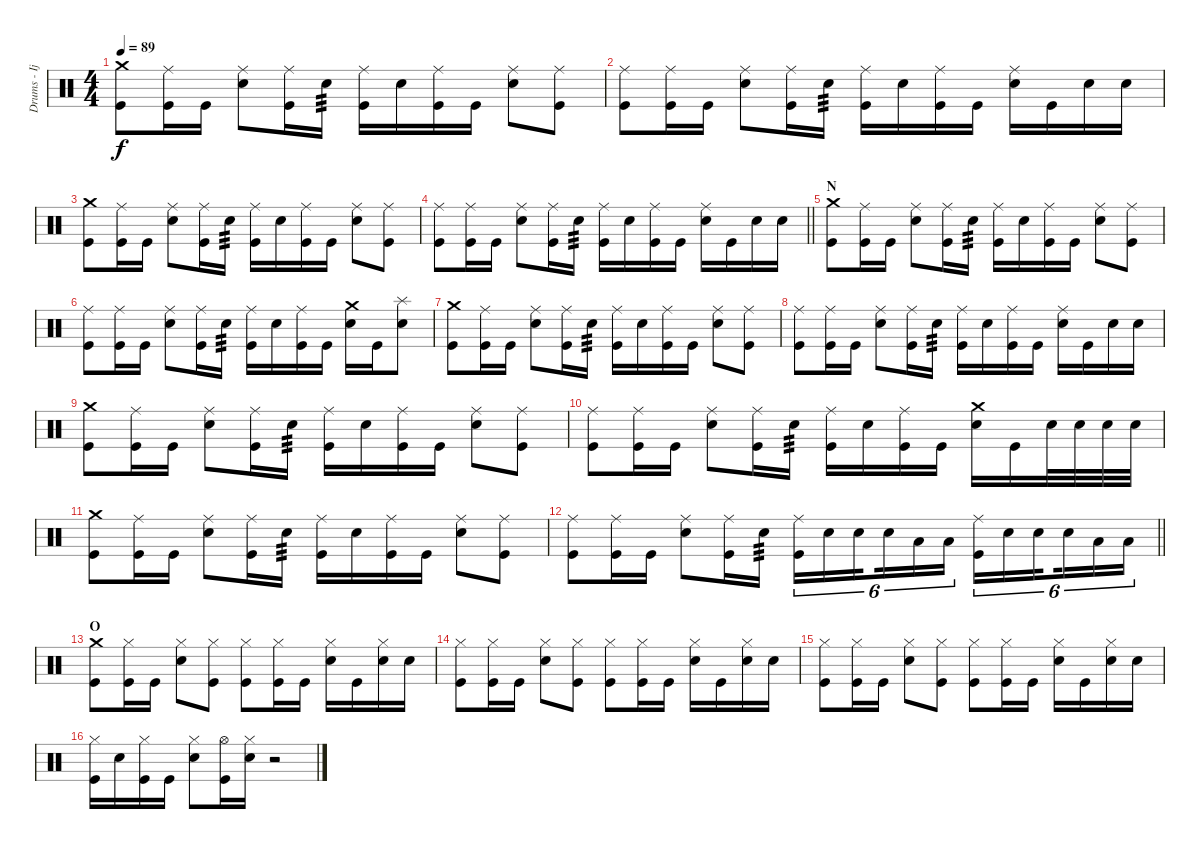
\track ("Drums - Ijichi" "Drums - Ij") {instrument percussion}
\staff {score}
\articulation defaults
\ts (4 4)
\tempo 89
\clef neutral
\ks c
("Crash medium (hit)" "Kick (hit)").8{dy f} ("Ride (middle)" "Kick (hit)").16 "Kick (hit)".16 ("Ride (middle)" "Electric Snare (hit)").8 ("Ride (middle)" "Kick (hit)").16 "Electric Snare (hit)".16{tp 3} ("Ride (middle)" "Kick (hit)").16 "Electric Snare (hit)".16 ("Ride (middle)" "Kick (hit)").16 "Kick (hit)".16 ("Ride (middle)" "Electric Snare (hit)").8 ("Ride (middle)" "Kick (hit)").8 |
("Ride (middle)" "Kick (hit)").8 ("Ride (middle)" "Kick (hit)").16 "Kick (hit)".16 ("Ride (middle)" "Electric Snare (hit)").8 ("Ride (middle)" "Kick (hit)").16 "Electric Snare (hit)".16{tp 3} ("Ride (middle)" "Kick (hit)").16 "Electric Snare (hit)".16 ("Ride (middle)" "Kick (hit)").16 "Kick (hit)".16 ("Ride (middle)" "Electric Snare (hit)").16 "Kick (hit)".16 "Electric Snare (hit)".16 "Electric Snare (hit)".16 |
("Crash medium (hit)" "Kick (hit)").8 ("Ride (middle)" "Kick (hit)").16 "Kick (hit)".16 ("Ride (middle)" "Electric Snare (hit)").8 ("Ride (middle)" "Kick (hit)").16 "Electric Snare (hit)".16{tp 3} ("Ride (middle)" "Kick (hit)").16 "Electric Snare (hit)".16 ("Ride (middle)" "Kick (hit)").16 "Kick (hit)".16 ("Ride (middle)" "Electric Snare (hit)").8 ("Ride (middle)" "Kick (hit)").8 |
\barLineRight lightlight
("Ride (middle)" "Kick (hit)").8 ("Ride (middle)" "Kick (hit)").16 "Kick (hit)".16 ("Ride (middle)" "Electric Snare (hit)").8 ("Ride (middle)" "Kick (hit)").16 "Electric Snare (hit)".16{tp 3} ("Ride (middle)" "Kick (hit)").16 "Electric Snare (hit)".16 ("Ride (middle)" "Kick (hit)").16 "Kick (hit)".16 ("Ride (middle)" "Electric Snare (hit)").16 "Kick (hit)".16 "Electric Snare (hit)".16 "Electric Snare (hit)".16 |
\section ("" "N")
("Crash medium (hit)" "Kick (hit)").8 ("Ride (middle)" "Kick (hit)").16 "Kick (hit)".16 ("Ride (middle)" "Electric Snare (hit)").8 ("Ride (middle)" "Kick (hit)").16 "Electric Snare (hit)".16{tp 3} ("Ride (middle)" "Kick (hit)").16 "Electric Snare (hit)".16 ("Ride (middle)" "Kick (hit)").16 "Kick (hit)".16 ("Ride (middle)" "Electric Snare (hit)").8 ("Ride (middle)" "Kick (hit)").8 |
("Ride (middle)" "Kick (hit)").8 ("Ride (middle)" "Kick (hit)").16 "Kick (hit)".16 ("Ride (middle)" "Electric Snare (hit)").8 ("Ride (middle)" "Kick (hit)").16 "Electric Snare (hit)".16{tp 3} ("Ride (middle)" "Kick (hit)").16 "Electric Snare (hit)".16 ("Ride (middle)" "Kick (hit)").16 "Kick (hit)".16 ("Crash medium (hit)" "Electric Snare (hit)").16 "Kick (hit)".16 ("Splash (hit)" "Electric Snare (hit)").8 |
("Crash medium (hit)" "Kick (hit)").8 ("Ride (middle)" "Kick (hit)").16 "Kick (hit)".16 ("Ride (middle)" "Electric Snare (hit)").8 ("Ride (middle)" "Kick (hit)").16 "Electric Snare (hit)".16{tp 3} ("Ride (middle)" "Kick (hit)").16 "Electric Snare (hit)".16 ("Ride (middle)" "Kick (hit)").16 "Kick (hit)".16 ("Ride (middle)" "Electric Snare (hit)").8 ("Ride (middle)" "Kick (hit)").8 |
("Ride (middle)" "Kick (hit)").8 ("Ride (middle)" "Kick (hit)").16 "Kick (hit)".16 ("Ride (middle)" "Electric Snare (hit)").8 ("Ride (middle)" "Kick (hit)").16 "Electric Snare (hit)".16{tp 3} ("Ride (middle)" "Kick (hit)").16 "Electric Snare (hit)".16 ("Ride (middle)" "Kick (hit)").16 "Kick (hit)".16 ("Ride (middle)" "Electric Snare (hit)").16 "Kick (hit)".16 "Electric Snare (hit)".16 "Electric Snare (hit)".16 |
("Crash medium (hit)" "Kick (hit)").8 ("Ride (middle)" "Kick (hit)").16 "Kick (hit)".16 ("Ride (middle)" "Electric Snare (hit)").8 ("Ride (middle)" "Kick (hit)").16 "Electric Snare (hit)".16{tp 3} ("Ride (middle)" "Kick (hit)").16 "Electric Snare (hit)".16 ("Ride (middle)" "Kick (hit)").16 "Kick (hit)".16 ("Ride (middle)" "Electric Snare (hit)").8 ("Ride (middle)" "Kick (hit)").8 |
("Ride (middle)" "Kick (hit)").8 ("Ride (middle)" "Kick (hit)").16 "Kick (hit)".16 ("Ride (middle)" "Electric Snare (hit)").8 ("Ride (middle)" "Kick (hit)").16 "Electric Snare (hit)".16{tp 3} ("Ride (middle)" "Kick (hit)").16 "Electric Snare (hit)".16 ("Ride (middle)" "Kick (hit)").16 "Kick (hit)".16 ("Crash medium (hit)" "Electric Snare (hit)").16 "Kick (hit)".16 "Electric Snare (hit)".32 "Electric Snare (hit)".32 "Electric Snare (hit)".32 "Electric Snare (hit)".32 |
("Crash medium (hit)" "Kick (hit)").8 ("Ride (middle)" "Kick (hit)").16 "Kick (hit)".16 ("Ride (middle)" "Electric Snare (hit)").8 ("Ride (middle)" "Kick (hit)").16 "Electric Snare (hit)".16{tp 3} ("Ride (middle)" "Kick (hit)").16 "Electric Snare (hit)".16 ("Ride (middle)" "Kick (hit)").16 "Kick (hit)".16 ("Ride (middle)" "Electric Snare (hit)").8 ("Ride (middle)" "Kick (hit)").8 |
\barLineRight lightlight
("Ride (middle)" "Kick (hit)").8 ("Ride (middle)" "Kick (hit)").16 "Kick (hit)".16 ("Ride (middle)" "Electric Snare (hit)").8 ("Ride (middle)" "Kick (hit)").16 "Electric Snare (hit)".16{tp 3} ("Ride (middle)" "Kick (hit)").16{tu (6 4)} "Electric Snare (hit)".16{tu (6 4)} "Electric Snare (hit)".16{tu (6 4) beam splitsecondary} "Electric Snare (hit)".16{tu (6 4)} "Low Tom (hit)".16{tu (6 4)} "Low Tom (hit)".16{tu (6 4)} ("Ride (middle)" "Kick (hit)").16{tu (6 4)} "Electric Snare (hit)".16{tu (6 4)} "Electric Snare (hit)".16{tu (6 4) beam splitsecondary} "Electric Snare (hit)".16{tu (6 4)} "Low Tom (hit)".16{tu (6 4)} "Low Tom (hit)".16{tu (6 4)} |
\section ("" "O")
("Crash medium (hit)" "Kick (hit)").8 ("Hi-Hat (closed)" "Kick (hit)").16 "Kick (hit)".16 ("Hi-Hat (closed)" "Electric Snare (hit)").8 ("Hi-Hat (closed)" "Kick (hit)").8 ("Hi-Hat (closed)" "Kick (hit)").8 ("Hi-Hat (closed)" "Kick (hit)").16 "Kick (hit)".16 ("Hi-Hat (closed)" "Electric Snare (hit)").16 "Kick (hit)".16 ("Hi-Hat (closed)" "Electric Snare (hit)").16 "Electric Snare (hit)".16 |
("Hi-Hat (closed)" "Kick (hit)").8 ("Hi-Hat (closed)" "Kick (hit)").16 "Kick (hit)".16 ("Hi-Hat (closed)" "Electric Snare (hit)").8 ("Hi-Hat (closed)" "Kick (hit)").8 ("Hi-Hat (closed)" "Kick (hit)").8 ("Hi-Hat (closed)" "Kick (hit)").16 "Kick (hit)".16 ("Hi-Hat (closed)" "Electric Snare (hit)").16 "Kick (hit)".16 ("Hi-Hat (closed)" "Electric Snare (hit)").16 "Electric Snare (hit)".16 |
("Hi-Hat (closed)" "Kick (hit)").8 ("Hi-Hat (closed)" "Kick (hit)").16 "Kick (hit)".16 ("Hi-Hat (closed)" "Electric Snare (hit)").8 ("Hi-Hat (closed)" "Kick (hit)").8 ("Hi-Hat (closed)" "Kick (hit)").8 ("Hi-Hat (closed)" "Kick (hit)").16 "Kick (hit)".16 ("Hi-Hat (closed)" "Electric Snare (hit)").16 "Kick (hit)".16 ("Hi-Hat (closed)" "Electric Snare (hit)").16 "Electric Snare (hit)".16 |
("Hi-Hat (closed)" "Kick (hit)").16 "Electric Snare (hit)".16 ("Hi-Hat (closed)" "Kick (hit)").16 "Kick (hit)".16 ("Hi-Hat (closed)" "Electric Snare (hit)").8 ("Hi-Hat (open)" "Kick (hit)").16 ("Hi-Hat (closed)" "Electric Snare (hit)").16 r.2
